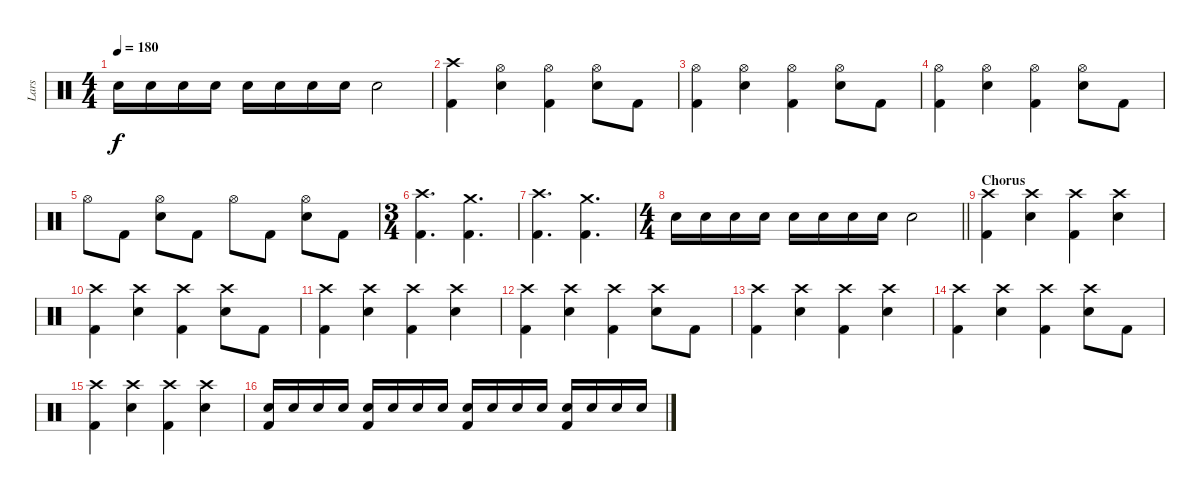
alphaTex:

\track ("Lars" "Lars") {instrument percussion}
\staff {score}
\articulation defaults
\ts (4 4)
\tempo 180
\clef neutral
\ks c "Electric Snare (hit)".16{dy f} "Electric Snare (hit)".16 "Electric Snare (hit)".16 "Electric Snare (hit)".16 "Electric Snare (hit)".16 "Electric Snare (hit)".16 "Electric Snare (hit)".16 "Electric Snare (hit)".16 "Electric Snare (hit)".2
|
("Crash high (hit)" "Kick (hit) 2").4 ("Hi-Hat (open)" "Electric Snare (hit)").4 ("Hi-Hat (open)" "Kick (hit) 2").4 ("Hi-Hat (open)" "Electric Snare (hit)").8 "Kick (hit) 2".8 |
("Hi-Hat (open)" "Kick (hit) 2").4 ("Hi-Hat (open)" "Electric Snare (hit)").4 ("Hi-Hat (open)" "Kick (hit) 2").4 ("Hi-Hat (open)" "Electric Snare (hit)").8 "Kick (hit) 2".8 |
("Hi-Hat (open)" "Kick (hit) 2").4 ("Hi-Hat (open)" "Electric Snare (hit)").4 ("Hi-Hat (open)" "Kick (hit) 2").4 ("Hi-Hat (open)" "Electric Snare (hit)").8 "Kick (hit) 2".8 |
"Hi-Hat (open)".8 "Kick (hit) 2".8 ("Hi-Hat (open)" "Electric Snare (hit)").8 "Kick (hit) 2".8 "Hi-Hat (open)".8 "Kick (hit) 2".8 ("Hi-Hat (open)" "Electric Snare (hit)").8 "Kick (hit) 2".8 |
\ts (3 4)
("Crash high (hit)" "Kick (hit) 2").4{d} ("Crash medium (hit)" "Kick (hit) 2").4{d} |
("Crash high (hit)" "Kick (hit) 2").4{d} ("Crash medium (hit)" "Kick (hit) 2").4{d} |
\ts (4 4)
\barLineRight lightlight "Electric Snare (hit)".16 "Electric Snare (hit)".16 "Electric Snare (hit)".16 "Electric Snare (hit)".16 "Electric Snare (hit)".16 "Electric Snare (hit)".16 "Electric Snare (hit)".16 "Electric Snare (hit)".16 "Electric Snare (hit)".2
|
\section ("" "Chorus")
("Crash high (hit)" "Kick (hit) 2").4 ("Crash high (hit)" "Electric Snare (hit)").4 ("Crash high (hit)" "Kick (hit) 2").4 ("Crash high (hit)" "Electric Snare (hit)").4 |
("Crash high (hit)" "Kick (hit) 2").4 ("Crash high (hit)" "Electric Snare (hit)").4 ("Crash high (hit)" "Kick (hit) 2").4 ("Crash high (hit)" "Electric Snare (hit)").8 "Kick (hit) 2".8 |
("Crash high (hit)" "Kick (hit) 2").4 ("Crash high (hit)" "Electric Snare (hit)").4 ("Crash high (hit)" "Kick (hit) 2").4 ("Crash high (hit)" "Electric Snare (hit)").4 |
("Crash high (hit)" "Kick (hit) 2").4 ("Crash high (hit)" "Electric Snare (hit)").4 ("Crash high (hit)" "Kick (hit) 2").4 ("Crash high (hit)" "Electric Snare (hit)").8 "Kick (hit) 2".8 |
("Crash high (hit)" "Kick (hit) 2").4 ("Crash high (hit)" "Electric Snare (hit)").4 ("Crash high (hit)" "Kick (hit) 2").4 ("Crash high (hit)" "Electric Snare (hit)").4 |
("Crash high (hit)" "Kick (hit) 2").4 ("Crash high (hit)" "Electric Snare (hit)").4 ("Crash high (hit)" "Kick (hit) 2").4 ("Crash high (hit)" "Electric Snare (hit)").8 "Kick (hit) 2".8 |
("Crash high (hit)" "Kick (hit) 2").4 ("Crash high (hit)" "Electric Snare (hit)").4 ("Crash high (hit)" "Kick (hit) 2").4 ("Crash high (hit)" "Electric Snare (hit)").4 |
("Electric Snare (hit)" "Kick (hit) 2").16 "Electric Snare (hit)".16 "Electric Snare (hit)".16 "Electric Snare (hit)".16 ("Electric Snare (hit)" "Kick (hit) 2").16 "Electric Snare (hit)".16 "Electric Snare (hit)".16 "Electric Snare (hit)".16 ("Electric Snare (hit)" "Kick (hit) 2").16 "Electric Snare (hit)".16 "Electric Snare (hit)".16 "Electric Snare (hit)".16 ("Electric Snare (hit)" "Kick (hit) 2").16 "Electric Snare (hit)".16 "Electric Snare (hit)".16 "Electric Snare (hit)".16
